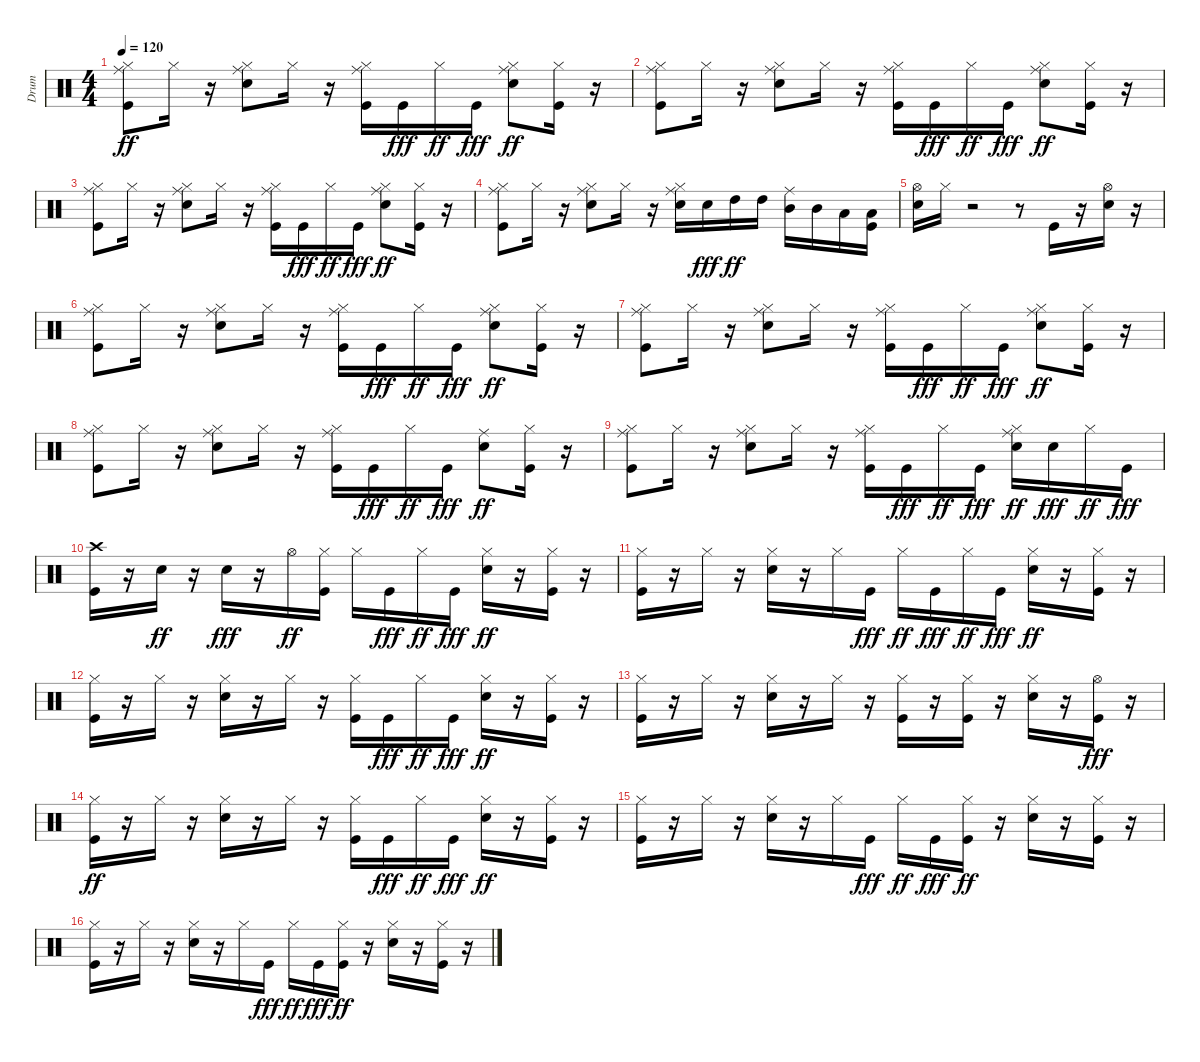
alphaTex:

\track ("Drum" "Drum") {instrument percussion}
\staff {score}
\articulation defaults
\ts (4 4)
\tempo 120
\clef neutral
\ks c
("Kick (hit)" "Hi-Hat (closed)" "Ride (middle)").8{dy ff} "Hi-Hat (closed)".16 r.16 ("Electric Snare (hit)" "Hi-Hat (closed)" "Ride (middle)").8 "Hi-Hat (closed)".16 r.16 ("Kick (hit)" "Hi-Hat (closed)" "Ride (middle)").16 "Kick (hit)".16{dy fff} "Hi-Hat (closed)".16{dy ff} "Kick (hit)".16{dy fff} ("Electric Snare (hit)" "Hi-Hat (closed)" "Ride (middle)").8{dy ff} ("Kick (hit)" "Hi-Hat (closed)").16 r.16 |
("Kick (hit)" "Hi-Hat (closed)" "Ride (middle)").8 "Hi-Hat (closed)".16 r.16 ("Electric Snare (hit)" "Hi-Hat (closed)" "Ride (middle)").8 "Hi-Hat (closed)".16 r.16 ("Kick (hit)" "Hi-Hat (closed)" "Ride (middle)").16 "Kick (hit)".16{dy fff} "Hi-Hat (closed)".16{dy ff} "Kick (hit)".16{dy fff} ("Electric Snare (hit)" "Hi-Hat (closed)" "Ride (middle)").8{dy ff} ("Kick (hit)" "Hi-Hat (closed)").16 r.16 |
("Kick (hit)" "Hi-Hat (closed)" "Ride (middle)").8 "Hi-Hat (closed)".16 r.16 ("Electric Snare (hit)" "Hi-Hat (closed)" "Ride (middle)").8 "Hi-Hat (closed)".16 r.16 ("Kick (hit)" "Hi-Hat (closed)" "Ride (middle)").16 "Kick (hit)".16{dy fff} "Hi-Hat (closed)".16{dy ff} "Kick (hit)".16{dy fff} ("Electric Snare (hit)" "Hi-Hat (closed)" "Ride (middle)").8{dy ff} ("Kick (hit)" "Hi-Hat (closed)").16 r.16 |
("Kick (hit)" "Hi-Hat (closed)" "Ride (middle)").8 "Hi-Hat (closed)".16 r.16 ("Electric Snare (hit)" "Hi-Hat (closed)" "Ride (middle)").8 "Hi-Hat (closed)".16 r.16 ("Electric Snare (hit)" "Hi-Hat (closed)" "Ride (middle)").16 "Electric Snare (hit)".16{dy fff} "High Tom (hit)".16{dy ff} "High Tom (hit)".16 ("Mid Tom (hit)" "Ride (middle)").16 "Mid Tom (hit)".16 "Low Tom (hit)".16 ("Low Tom (hit)" "Kick (hit)").16 |
("Electric Snare (hit)" "Hi-Hat (open)").16 "Hi-Hat (closed)".16 r.2 r.8 "Kick (hit)".16 r.16 ("Hi-Hat (open)" "Electric Snare (hit)").16 r.16 |
("Kick (hit)" "Hi-Hat (closed)" "Ride (middle)").8 "Hi-Hat (closed)".16 r.16 ("Electric Snare (hit)" "Hi-Hat (closed)" "Ride (middle)").8 "Hi-Hat (closed)".16 r.16 ("Kick (hit)" "Hi-Hat (closed)" "Ride (middle)").16 "Kick (hit)".16{dy fff} "Hi-Hat (closed)".16{dy ff} "Kick (hit)".16{dy fff} ("Hi-Hat (closed)" "Electric Snare (hit)" "Ride (middle)").8{dy ff} ("Kick (hit)" "Hi-Hat (closed)").16 r.16 |
("Kick (hit)" "Hi-Hat (closed)" "Ride (middle)").8 "Hi-Hat (closed)".16 r.16 ("Hi-Hat (closed)" "Electric Snare (hit)" "Ride (middle)").8 "Hi-Hat (closed)".16 r.16 ("Kick (hit)" "Hi-Hat (closed)" "Ride (middle)").16 "Kick (hit)".16{dy fff} "Hi-Hat (closed)".16{dy ff} "Kick (hit)".16{dy fff} ("Hi-Hat (closed)" "Electric Snare (hit)" "Ride (middle)").8{dy ff} ("Kick (hit)" "Hi-Hat (closed)").16 r.16 |
("Ride (middle)" "Kick (hit)" "Hi-Hat (closed)").8 "Hi-Hat (closed)".16 r.16 ("Hi-Hat (closed)" "Electric Snare (hit)" "Ride (middle)").8 "Hi-Hat (closed)".16 r.16 ("Kick (hit)" "Hi-Hat (closed)" "Ride (middle)").16 "Kick (hit)".16{dy fff} "Hi-Hat (closed)".16{dy ff} "Kick (hit)".16{dy fff} ("Electric Snare (hit)" "Ride (middle)").8{dy ff} ("Kick (hit)" "Hi-Hat (closed)").16 r.16 |
("Kick (hit)" "Hi-Hat (closed)" "Ride (middle)").8 "Hi-Hat (closed)".16 r.16 ("Electric Snare (hit)" "Hi-Hat (closed)" "Ride (middle)").8 "Hi-Hat (closed)".16 r.16 ("Kick (hit)" "Hi-Hat (closed)" "Ride (middle)").16 "Kick (hit)".16{dy fff} "Hi-Hat (closed)".16{dy ff} "Kick (hit)".16{dy fff} ("Hi-Hat (closed)" "Electric Snare (hit)" "Ride (middle)").16{dy ff} "Electric Snare (hit)".16{dy fff} "Hi-Hat (closed)".16{dy ff} "Kick (hit)".16{dy fff} |
("Crash high (hit)" "Kick (hit)").16 r.16 "Electric Snare (hit)".16{dy ff} r.16 "Electric Snare (hit)".16{dy fff} r.16 "Hi-Hat (open)".16{dy ff} ("Kick (hit)" "Hi-Hat (closed)").16 "Hi-Hat (closed)".16 "Kick (hit)".16{dy fff} "Hi-Hat (closed)".16{dy ff} "Kick (hit)".16{dy fff} ("Electric Snare (hit)" "Hi-Hat (closed)").16{dy ff} r.16 ("Kick (hit)" "Hi-Hat (closed)").16 r.16 |
("Kick (hit)" "Hi-Hat (closed)").16 r.16 "Hi-Hat (closed)".16 r.16 ("Electric Snare (hit)" "Hi-Hat (closed)").16 r.16 "Hi-Hat (closed)".16 "Kick (hit)".16{dy fff} "Hi-Hat (closed)".16{dy ff} "Kick (hit)".16{dy fff} "Hi-Hat (closed)".16{dy ff} "Kick (hit)".16{dy fff} ("Electric Snare (hit)" "Hi-Hat (closed)").16{dy ff} r.16 ("Kick (hit)" "Hi-Hat (closed)").16 r.16 |
("Kick (hit)" "Hi-Hat (closed)").16 r.16 "Hi-Hat (closed)".16 r.16 ("Electric Snare (hit)" "Hi-Hat (closed)").16 r.16 "Hi-Hat (closed)".16 r.16 ("Kick (hit)" "Hi-Hat (closed)").16 "Kick (hit)".16{dy fff} "Hi-Hat (closed)".16{dy ff} "Kick (hit)".16{dy fff} ("Electric Snare (hit)" "Hi-Hat (closed)").16{dy ff} r.16 ("Kick (hit)" "Hi-Hat (closed)").16 r.16 |
("Kick (hit)" "Hi-Hat (closed)").16 r.16 "Hi-Hat (closed)".16 r.16 ("Electric Snare (hit)" "Hi-Hat (closed)").16 r.16 "Hi-Hat (closed)".16 r.16 ("Kick (hit)" "Hi-Hat (closed)").16 r.16 ("Kick (hit)" "Hi-Hat (closed)").16 r.16 ("Electric Snare (hit)" "Hi-Hat (closed)").16 r.16 ("Hi-Hat (open)" "Kick (hit)").16{dy fff} r.16 |
("Kick (hit)" "Hi-Hat (closed)").16{dy ff} r.16 "Hi-Hat (closed)".16 r.16 ("Electric Snare (hit)" "Hi-Hat (closed)").16 r.16 "Hi-Hat (closed)".16 r.16 ("Kick (hit)" "Hi-Hat (closed)").16 "Kick (hit)".16{dy fff} "Hi-Hat (closed)".16{dy ff} "Kick (hit)".16{dy fff} ("Electric Snare (hit)" "Hi-Hat (closed)").16{dy ff} r.16 ("Kick (hit)" "Hi-Hat (closed)").16 r.16 |
("Kick (hit)" "Hi-Hat (closed)").16 r.16 "Hi-Hat (closed)".16 r.16 ("Electric Snare (hit)" "Hi-Hat (closed)").16 r.16 "Hi-Hat (closed)".16 "Kick (hit)".16{dy fff} "Hi-Hat (closed)".16{dy ff} "Kick (hit)".16{dy fff} ("Kick (hit)" "Hi-Hat (closed)").16{dy ff} r.16 ("Electric Snare (hit)" "Hi-Hat (closed)").16 r.16 ("Kick (hit)" "Hi-Hat (closed)").16 r.16 |
("Kick (hit)" "Hi-Hat (closed)").16 r.16 "Hi-Hat (closed)".16 r.16 ("Electric Snare (hit)" "Hi-Hat (closed)").16 r.16 "Hi-Hat (closed)".16 "Kick (hit)".16{dy fff} "Hi-Hat (closed)".16{dy ff} "Kick (hit)".16{dy fff} ("Kick (hit)" "Hi-Hat (closed)").16{dy ff} r.16 ("Electric Snare (hit)" "Hi-Hat (closed)").16 r.16 ("Kick (hit)" "Hi-Hat (closed)").16 r.16
